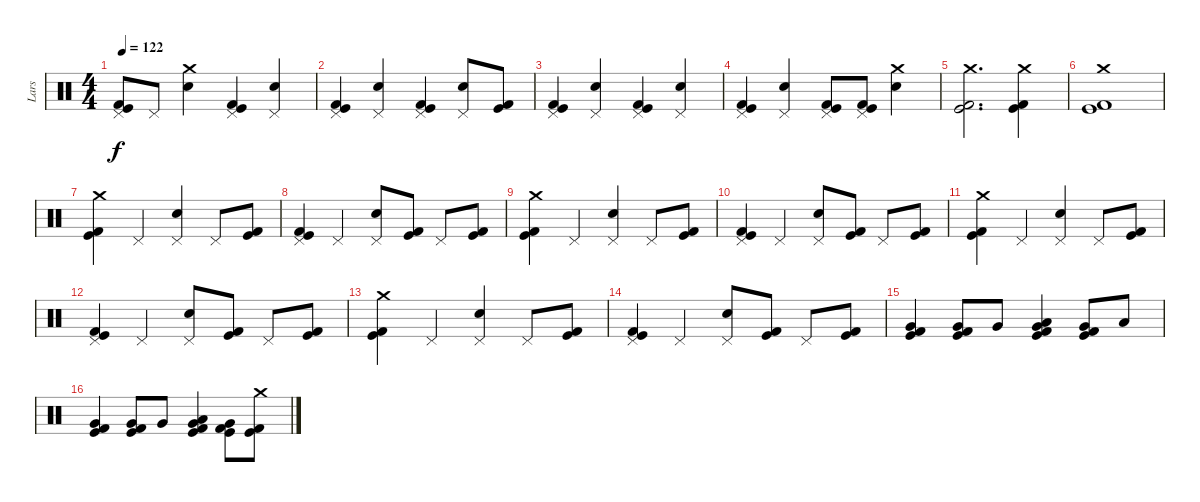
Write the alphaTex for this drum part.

\track ("Lars" "Lars") {instrument percussion}
\staff {score}
\articulation defaults
\ts (4 4)
\tempo 122
\clef neutral
\ks c
("Pedal Hi-Hat (hit)" "Kick (hit)" "Kick (hit) 2").8{dy f} "Pedal Hi-Hat (hit)".8 ("Crash medium (hit)" "Electric Snare (hit)").4 ("Pedal Hi-Hat (hit)" "Kick (hit)" "Kick (hit) 2").4 ("Pedal Hi-Hat (hit)" "Electric Snare (hit)").4 |
("Pedal Hi-Hat (hit)" "Kick (hit)" "Kick (hit) 2").4 ("Pedal Hi-Hat (hit)" "Electric Snare (hit)").4 ("Pedal Hi-Hat (hit)" "Kick (hit)" "Kick (hit) 2").4 ("Pedal Hi-Hat (hit)" "Electric Snare (hit)").8 ("Kick (hit)" "Kick (hit) 2").8 |
("Pedal Hi-Hat (hit)" "Kick (hit)" "Kick (hit) 2").4 ("Pedal Hi-Hat (hit)" "Electric Snare (hit)").4 ("Pedal Hi-Hat (hit)" "Kick (hit)" "Kick (hit) 2").4 ("Pedal Hi-Hat (hit)" "Electric Snare (hit)").4 |
("Pedal Hi-Hat (hit)" "Kick (hit)" "Kick (hit) 2").4 ("Pedal Hi-Hat (hit)" "Electric Snare (hit)").4 ("Pedal Hi-Hat (hit)" "Kick (hit)" "Kick (hit) 2").8 ("Pedal Hi-Hat (hit)" "Kick (hit)" "Kick (hit) 2").8 ("Crash medium (hit)" "Electric Snare (hit)").4 |
("Crash medium (hit)" "Kick (hit)" "Kick (hit) 2").2{d} ("Crash medium (hit)" "Kick (hit)" "Kick (hit) 2").4 |
("Crash medium (hit)" "Kick (hit)" "Kick (hit) 2").1 |
("Crash medium (hit)" "Kick (hit)" "Kick (hit) 2").4 "Pedal Hi-Hat (hit)".4 ("Pedal Hi-Hat (hit)" "Electric Snare (hit)").4 "Pedal Hi-Hat (hit)".8 ("Kick (hit)" "Kick (hit) 2").8 |
("Pedal Hi-Hat (hit)" "Kick (hit)" "Kick (hit) 2").4 "Pedal Hi-Hat (hit)".4 ("Pedal Hi-Hat (hit)" "Electric Snare (hit)").8 ("Kick (hit)" "Kick (hit) 2").8 "Pedal Hi-Hat (hit)".8 ("Kick (hit)" "Kick (hit) 2").8 |
("Crash medium (hit)" "Kick (hit)" "Kick (hit) 2").4 "Pedal Hi-Hat (hit)".4 ("Pedal Hi-Hat (hit)" "Electric Snare (hit)").4 "Pedal Hi-Hat (hit)".8 ("Kick (hit)" "Kick (hit) 2").8 |
("Pedal Hi-Hat (hit)" "Kick (hit)" "Kick (hit) 2").4 "Pedal Hi-Hat (hit)".4 ("Pedal Hi-Hat (hit)" "Electric Snare (hit)").8 ("Kick (hit)" "Kick (hit) 2").8 "Pedal Hi-Hat (hit)".8 ("Kick (hit)" "Kick (hit) 2").8 |
("Crash medium (hit)" "Kick (hit)" "Kick (hit) 2").4 "Pedal Hi-Hat (hit)".4 ("Pedal Hi-Hat (hit)" "Electric Snare (hit)").4 "Pedal Hi-Hat (hit)".8 ("Kick (hit)" "Kick (hit) 2").8 |
("Pedal Hi-Hat (hit)" "Kick (hit)" "Kick (hit) 2").4 "Pedal Hi-Hat (hit)".4 ("Pedal Hi-Hat (hit)" "Electric Snare (hit)").8 ("Kick (hit)" "Kick (hit) 2").8 "Pedal Hi-Hat (hit)".8 ("Kick (hit)" "Kick (hit) 2").8 |
("Crash medium (hit)" "Kick (hit)" "Kick (hit) 2").4 "Pedal Hi-Hat (hit)".4 ("Pedal Hi-Hat (hit)" "Electric Snare (hit)").4 "Pedal Hi-Hat (hit)".8 ("Kick (hit)" "Kick (hit) 2").8 |
("Pedal Hi-Hat (hit)" "Kick (hit)" "Kick (hit) 2").4 "Pedal Hi-Hat (hit)".4 ("Pedal Hi-Hat (hit)" "Electric Snare (hit)").8 ("Kick (hit)" "Kick (hit) 2").8 "Pedal Hi-Hat (hit)".8 ("Kick (hit)" "Kick (hit) 2").8 |
("Very Low Tom (hit)" "Kick (hit)" "Kick (hit) 2").4 ("Very Low Tom (hit)" "Kick (hit)" "Kick (hit) 2").8 "Very Low Tom (hit)".8 ("Very Low Tom (hit)" "Kick (hit)" "Kick (hit) 2" "Low Tom (hit)").4 ("Very Low Tom (hit)" "Kick (hit)" "Kick (hit) 2").8 "Low Tom (hit)".8 |
("Very Low Tom (hit)" "Kick (hit)" "Kick (hit) 2").4 ("Very Low Tom (hit)" "Kick (hit)" "Kick (hit) 2").8 "Very Low Tom (hit)".8 ("Very Low Tom (hit)" "Kick (hit)" "Kick (hit) 2" "Low Tom (hit)").4 ("Very Low Tom (hit)" "Kick (hit)" "Kick (hit) 2").8 ("Crash medium (hit)" "Kick (hit)" "Kick (hit) 2").8
